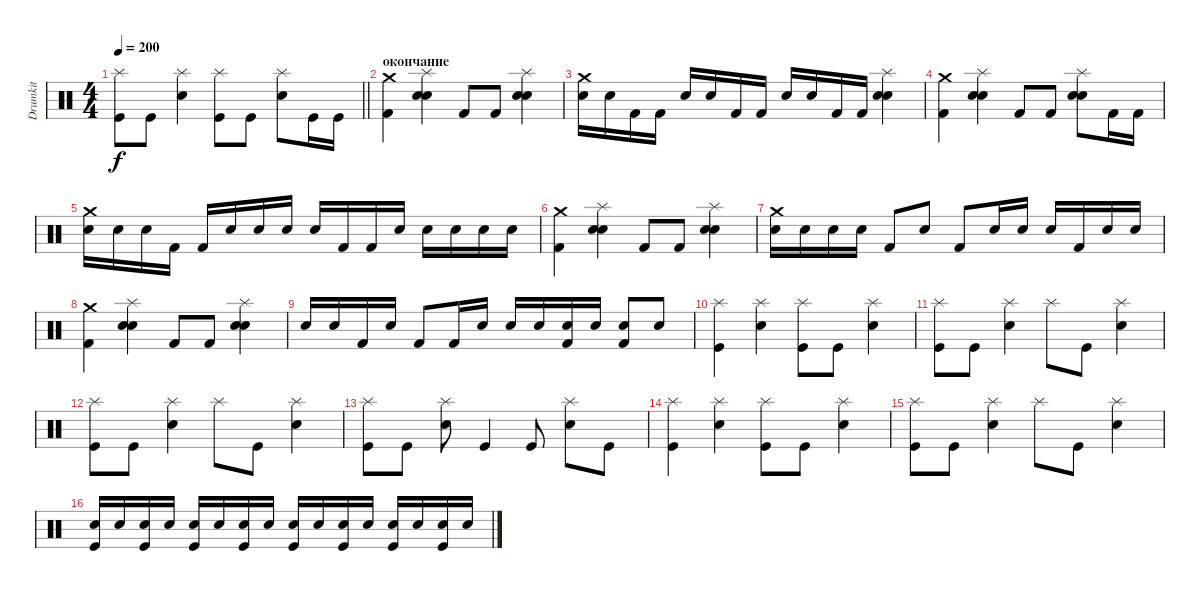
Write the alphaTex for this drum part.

\track ("Drumkit" "Drumkit") {instrument percussion}
\staff {score}
\articulation defaults
\ts (4 4)
\tempo 200
\clef neutral
\barLineRight lightlight
\ks c
("Kick (hit)" "Splash (hit)").8{dy f} "Kick (hit)".8 ("Snare (hit) 2" "Splash (hit)").4 ("Kick (hit)" "Splash (hit)").8 "Kick (hit)".8 ("Snare (hit) 2" "Splash (hit)").8 "Kick (hit)".16 "Kick (hit)".16 |
\section ("" "окончание")
("Crash medium (hit)" "Kick (hit) 2").4 ("Splash (hit)" "Electric Snare (hit)" "Snare (hit) 2").4 "Kick (hit) 2".8 "Kick (hit) 2".8 ("Splash (hit)" "Electric Snare (hit)" "Snare (hit) 2").4 |
("Crash medium (hit)" "Electric Snare (hit)").16 "Electric Snare (hit)".16 "Kick (hit) 2".16 "Kick (hit) 2".16 "Electric Snare (hit)".16 "Electric Snare (hit)".16 "Kick (hit) 2".16 "Kick (hit) 2".16 "Electric Snare (hit)".16 "Electric Snare (hit)".16 "Kick (hit) 2".16 "Kick (hit) 2".16 ("Splash (hit)" "Electric Snare (hit)" "Snare (hit) 2").4 |
("Crash medium (hit)" "Kick (hit) 2").4 ("Splash (hit)" "Electric Snare (hit)" "Snare (hit) 2").4 "Kick (hit) 2".8 "Kick (hit) 2".8 ("Splash (hit)" "Electric Snare (hit)" "Snare (hit) 2").8 "Kick (hit) 2".16 "Kick (hit) 2".16 |
("Crash medium (hit)" "Electric Snare (hit)").16 "Electric Snare (hit)".16 "Electric Snare (hit)".16 "Kick (hit) 2".16 "Kick (hit) 2".16 "Electric Snare (hit)".16 "Electric Snare (hit)".16 "Electric Snare (hit)".16 "Electric Snare (hit)".16 "Kick (hit) 2".16 "Kick (hit) 2".16 "Electric Snare (hit)".16 "Electric Snare (hit)".16 "Electric Snare (hit)".16 "Electric Snare (hit)".16 "Electric Snare (hit)".16 |
("Crash medium (hit)" "Kick (hit) 2").4 ("Splash (hit)" "Electric Snare (hit)" "Snare (hit) 2").4 "Kick (hit) 2".8 "Kick (hit) 2".8 ("Splash (hit)" "Electric Snare (hit)" "Snare (hit) 2").4 |
("Crash medium (hit)" "Electric Snare (hit)").16 "Electric Snare (hit)".16 "Electric Snare (hit)".16 "Electric Snare (hit)".16 "Kick (hit) 2".8 "Electric Snare (hit)".8 "Kick (hit) 2".8 "Electric Snare (hit)".16 "Electric Snare (hit)".16 "Electric Snare (hit)".16 "Kick (hit) 2".16 "Electric Snare (hit)".16 "Electric Snare (hit)".16 |
("Crash medium (hit)" "Kick (hit) 2").4 ("Splash (hit)" "Electric Snare (hit)" "Snare (hit) 2").4 "Kick (hit) 2".8 "Kick (hit) 2".8 ("Splash (hit)" "Electric Snare (hit)" "Snare (hit) 2").4 |
"Electric Snare (hit)".16 "Electric Snare (hit)".16 "Kick (hit) 2".16 "Electric Snare (hit)".16 "Kick (hit) 2".8 "Kick (hit) 2".16 "Electric Snare (hit)".16 "Electric Snare (hit)".16 "Electric Snare (hit)".16 ("Electric Snare (hit)" "Kick (hit) 2").16 "Electric Snare (hit)".16 ("Electric Snare (hit)" "Kick (hit) 2").8 "Electric Snare (hit)".8 |
("Kick (hit)" "Splash (hit)").4 ("Snare (hit) 2" "Splash (hit)").4 ("Kick (hit)" "Splash (hit)").8 "Kick (hit)".8 ("Snare (hit) 2" "Splash (hit)").4 |
("Kick (hit)" "Splash (hit)").8 "Kick (hit)".8 ("Snare (hit) 2" "Splash (hit)").4 "Splash (hit)".8 "Kick (hit)".8 ("Snare (hit) 2" "Splash (hit)").4 |
("Kick (hit)" "Splash (hit)").8 "Kick (hit)".8 ("Snare (hit) 2" "Splash (hit)").4 "Splash (hit)".8 "Kick (hit)".8 ("Snare (hit) 2" "Splash (hit)").4 |
("Kick (hit)" "Splash (hit)").8 "Kick (hit)".8 ("Snare (hit) 2" "Splash (hit)").8 "Kick (hit)".4 "Kick (hit)".8 ("Snare (hit) 2" "Splash (hit)").8 "Kick (hit)".8 |
("Kick (hit)" "Splash (hit)").4 ("Snare (hit) 2" "Splash (hit)").4 ("Kick (hit)" "Splash (hit)").8 "Kick (hit)".8 ("Snare (hit) 2" "Splash (hit)").4 |
("Kick (hit)" "Splash (hit)").8 "Kick (hit)".8 ("Snare (hit) 2" "Splash (hit)").4 "Splash (hit)".8 "Kick (hit)".8 ("Snare (hit) 2" "Splash (hit)").4 |
("Kick (hit)" "Electric Snare (hit)").16 "Electric Snare (hit)".16 ("Kick (hit)" "Electric Snare (hit)").16 "Electric Snare (hit)".16 ("Kick (hit)" "Electric Snare (hit)").16 "Electric Snare (hit)".16 ("Kick (hit)" "Electric Snare (hit)").16 "Electric Snare (hit)".16 ("Kick (hit)" "Electric Snare (hit)").16 "Electric Snare (hit)".16 ("Kick (hit)" "Electric Snare (hit)").16 "Electric Snare (hit)".16 ("Kick (hit)" "Electric Snare (hit)").16 "Electric Snare (hit)".16 ("Kick (hit)" "Electric Snare (hit)").16 "Electric Snare (hit)".16
